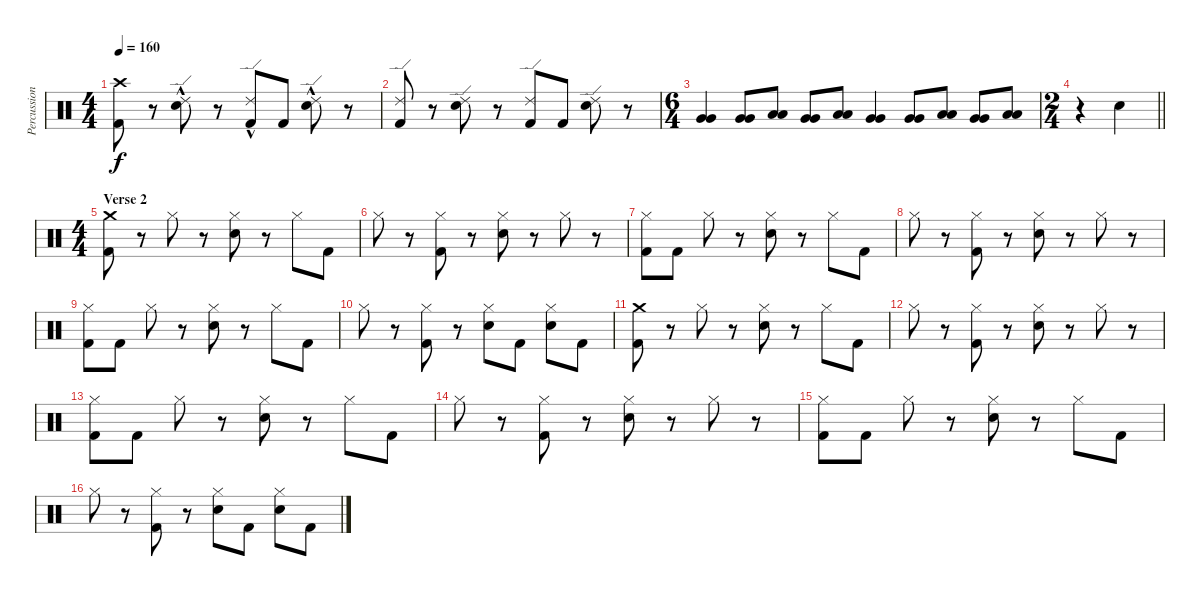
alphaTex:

\track ("Percussion" "Percussion") {instrument percussion}
\staff {score}
\articulation defaults
\ts (4 4)
\tempo 160
\clef neutral
\ks c
("Crash high (hit)" "Kick (hit) 2").8{dy f} r.8 ("Ride (edge) 2"{hac} "Electric Snare (hit)").8 r.8 ("Ride (edge) 2"{hac} "Kick (hit) 2").8 "Kick (hit) 2".8 ("Ride (edge) 2"{hac} "Electric Snare (hit)").8 r.8 |
("Ride (edge) 2" "Kick (hit) 2").8 r.8 ("Ride (edge) 2" "Electric Snare (hit)").8 r.8 ("Ride (edge) 2" "Kick (hit) 2").8 "Kick (hit) 2".8 ("Ride (edge) 2" "Electric Snare (hit)").8 r.8 |
\ts (6 4)
("Very Low Tom (hit)" "Very Low Tom (hit)").4 ("Very Low Tom (hit)" "Very Low Tom (hit)").8 ("Low Floor Tom (hit)" "Low Floor Tom (hit)").8 ("Very Low Tom (hit)" "Very Low Tom (hit)").8 ("Low Floor Tom (hit)" "Low Floor Tom (hit)").8 ("Very Low Tom (hit)" "Very Low Tom (hit)").4 ("Very Low Tom (hit)" "Very Low Tom (hit)").8 ("Low Floor Tom (hit)" "Low Floor Tom (hit)").8 ("Very Low Tom (hit)" "Very Low Tom (hit)").8 ("Low Tom (hit)" "Low Tom (hit)").8 |
\ts (2 4)
\barLineRight lightlight
r.4 "Electric Snare (hit)".4 |
\ts (4 4)
\section ("" "Verse 2")
("Crash medium (hit)" "Kick (hit) 2").8 r.8 "Hi-Hat (closed)".8 r.8 ("Hi-Hat (closed)" "Electric Snare (hit)").8 r.8 "Hi-Hat (closed)".8 "Kick (hit) 2".8 |
"Hi-Hat (closed)".8 r.8 ("Hi-Hat (closed)" "Kick (hit) 2").8 r.8 ("Hi-Hat (closed)" "Electric Snare (hit)").8 r.8 "Hi-Hat (closed)".8 r.8 |
("Hi-Hat (closed)" "Kick (hit) 2").8 "Kick (hit) 2".8 "Hi-Hat (closed)".8 r.8 ("Hi-Hat (closed)" "Electric Snare (hit)").8 r.8 "Hi-Hat (closed)".8 "Kick (hit) 2".8 |
"Hi-Hat (closed)".8 r.8 ("Hi-Hat (closed)" "Kick (hit) 2").8 r.8 ("Hi-Hat (closed)" "Electric Snare (hit)").8 r.8 "Hi-Hat (closed)".8 r.8 |
("Hi-Hat (closed)" "Kick (hit) 2").8 "Kick (hit) 2".8 "Hi-Hat (closed)".8 r.8 ("Hi-Hat (closed)" "Electric Snare (hit)").8 r.8 "Hi-Hat (closed)".8 "Kick (hit) 2".8 |
"Hi-Hat (closed)".8 r.8 ("Hi-Hat (closed)" "Kick (hit) 2").8 r.8 ("Hi-Hat (closed)" "Electric Snare (hit)").8 "Kick (hit) 2".8 ("Hi-Hat (closed)" "Electric Snare (hit)").8 "Kick (hit) 2".8 |
("Crash medium (hit)" "Kick (hit) 2").8 r.8 "Hi-Hat (closed)".8 r.8 ("Hi-Hat (closed)" "Electric Snare (hit)").8 r.8 "Hi-Hat (closed)".8 "Kick (hit) 2".8 |
"Hi-Hat (closed)".8 r.8 ("Hi-Hat (closed)" "Kick (hit) 2").8 r.8 ("Hi-Hat (closed)" "Electric Snare (hit)").8 r.8 "Hi-Hat (closed)".8 r.8 |
("Hi-Hat (closed)" "Kick (hit) 2").8 "Kick (hit) 2".8 "Hi-Hat (closed)".8 r.8 ("Hi-Hat (closed)" "Electric Snare (hit)").8 r.8 "Hi-Hat (closed)".8 "Kick (hit) 2".8 |
"Hi-Hat (closed)".8 r.8 ("Hi-Hat (closed)" "Kick (hit) 2").8 r.8 ("Hi-Hat (closed)" "Electric Snare (hit)").8 r.8 "Hi-Hat (closed)".8 r.8 |
("Hi-Hat (closed)" "Kick (hit) 2").8 "Kick (hit) 2".8 "Hi-Hat (closed)".8 r.8 ("Hi-Hat (closed)" "Electric Snare (hit)").8 r.8 "Hi-Hat (closed)".8 "Kick (hit) 2".8 |
"Hi-Hat (closed)".8 r.8 ("Hi-Hat (closed)" "Kick (hit) 2").8 r.8 ("Hi-Hat (closed)" "Electric Snare (hit)").8 "Kick (hit) 2".8 ("Hi-Hat (closed)" "Electric Snare (hit)").8 "Kick (hit) 2".8
